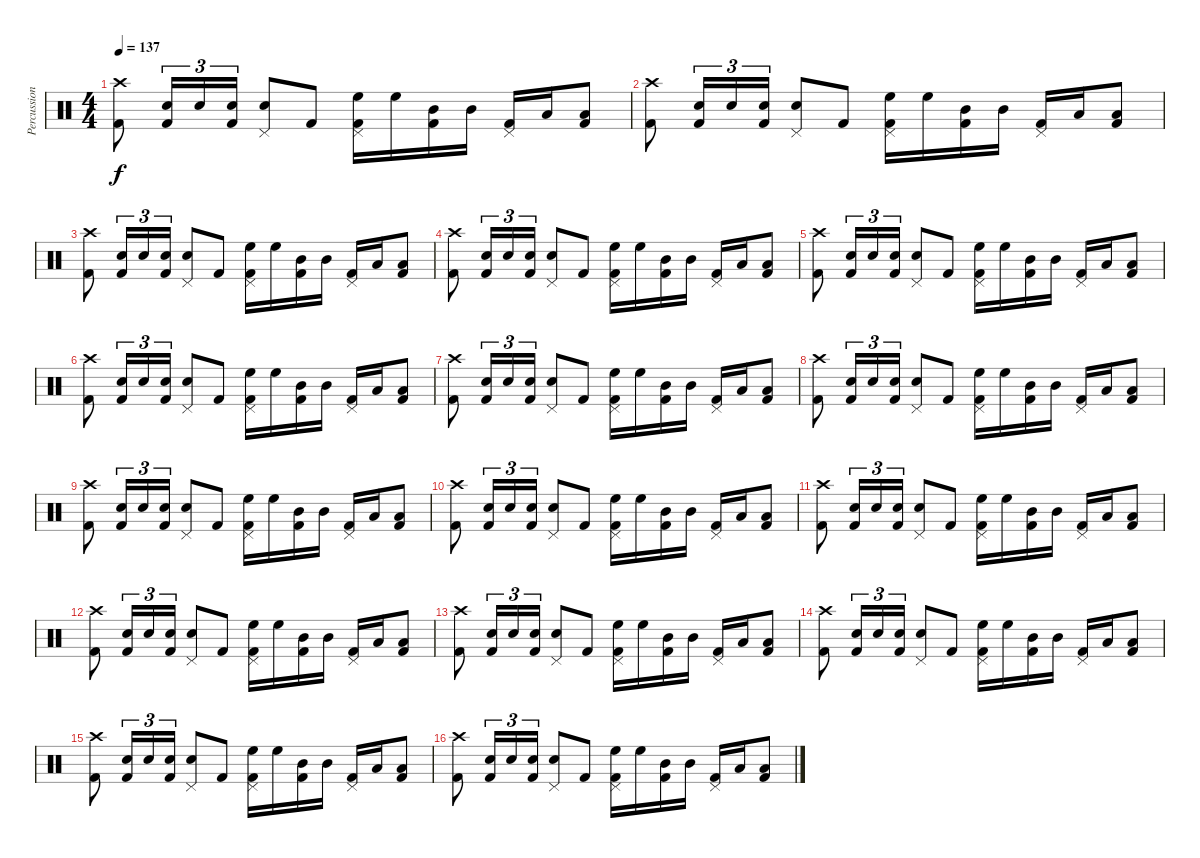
\track ("Percussion" "Percussion") {instrument percussion}
\staff {score}
\articulation defaults
\ts (4 4)
\tempo 137
\clef neutral
\ks c
("Kick (hit) 2" "Crash high (hit)").8{dy f} ("Kick (hit) 2" "Snare (hit) 2").16{tu (3 2)} "Snare (hit) 2".16{tu (3 2)} ("Kick (hit) 2" "Snare (hit) 2").16{tu (3 2)} ("Snare (hit) 2" "Pedal Hi-Hat (hit)").8 "Kick (hit) 2".8 ("Kick (hit) 2" "High Floor Tom (hit)" "Pedal Hi-Hat (hit)").16 "High Floor Tom (hit)".16 ("Kick (hit) 2" "Mid Tom (hit)").16 "Mid Tom (hit)".16 ("Kick (hit) 2" "Pedal Hi-Hat (hit)").16 "Low Tom (hit)".16 ("Kick (hit) 2" "Low Tom (hit)").8 |
("Kick (hit) 2" "Crash high (hit)").8 ("Kick (hit) 2" "Snare (hit) 2").16{tu (3 2)} "Snare (hit) 2".16{tu (3 2)} ("Kick (hit) 2" "Snare (hit) 2").16{tu (3 2)} ("Snare (hit) 2" "Pedal Hi-Hat (hit)").8 "Kick (hit) 2".8 ("Kick (hit) 2" "High Floor Tom (hit)" "Pedal Hi-Hat (hit)").16 "High Floor Tom (hit)".16 ("Kick (hit) 2" "Mid Tom (hit)").16 "Mid Tom (hit)".16 ("Kick (hit) 2" "Pedal Hi-Hat (hit)").16 "Low Tom (hit)".16 ("Kick (hit) 2" "Low Tom (hit)").8 |
("Kick (hit) 2" "Crash high (hit)").8 ("Kick (hit) 2" "Snare (hit) 2").16{tu (3 2)} "Snare (hit) 2".16{tu (3 2)} ("Kick (hit) 2" "Snare (hit) 2").16{tu (3 2)} ("Snare (hit) 2" "Pedal Hi-Hat (hit)").8 "Kick (hit) 2".8 ("Kick (hit) 2" "High Floor Tom (hit)" "Pedal Hi-Hat (hit)").16 "High Floor Tom (hit)".16 ("Kick (hit) 2" "Mid Tom (hit)").16 "Mid Tom (hit)".16 ("Kick (hit) 2" "Pedal Hi-Hat (hit)").16 "Low Tom (hit)".16 ("Kick (hit) 2" "Low Tom (hit)").8 |
("Kick (hit) 2" "Crash high (hit)").8 ("Kick (hit) 2" "Snare (hit) 2").16{tu (3 2)} "Snare (hit) 2".16{tu (3 2)} ("Kick (hit) 2" "Snare (hit) 2").16{tu (3 2)} ("Snare (hit) 2" "Pedal Hi-Hat (hit)").8 "Kick (hit) 2".8 ("Kick (hit) 2" "High Floor Tom (hit)" "Pedal Hi-Hat (hit)").16 "High Floor Tom (hit)".16 ("Kick (hit) 2" "Mid Tom (hit)").16 "Mid Tom (hit)".16 ("Kick (hit) 2" "Pedal Hi-Hat (hit)").16 "Low Tom (hit)".16 ("Kick (hit) 2" "Low Tom (hit)").8 |
("Kick (hit) 2" "Crash high (hit)").8 ("Kick (hit) 2" "Snare (hit) 2").16{tu (3 2)} "Snare (hit) 2".16{tu (3 2)} ("Kick (hit) 2" "Snare (hit) 2").16{tu (3 2)} ("Snare (hit) 2" "Pedal Hi-Hat (hit)").8 "Kick (hit) 2".8 ("Kick (hit) 2" "High Floor Tom (hit)" "Pedal Hi-Hat (hit)").16 "High Floor Tom (hit)".16 ("Kick (hit) 2" "Mid Tom (hit)").16 "Mid Tom (hit)".16 ("Kick (hit) 2" "Pedal Hi-Hat (hit)").16 "Low Tom (hit)".16 ("Kick (hit) 2" "Low Tom (hit)").8 |
("Kick (hit) 2" "Crash high (hit)").8 ("Kick (hit) 2" "Snare (hit) 2").16{tu (3 2)} "Snare (hit) 2".16{tu (3 2)} ("Kick (hit) 2" "Snare (hit) 2").16{tu (3 2)} ("Snare (hit) 2" "Pedal Hi-Hat (hit)").8 "Kick (hit) 2".8 ("Kick (hit) 2" "High Floor Tom (hit)" "Pedal Hi-Hat (hit)").16 "High Floor Tom (hit)".16 ("Kick (hit) 2" "Mid Tom (hit)").16 "Mid Tom (hit)".16 ("Kick (hit) 2" "Pedal Hi-Hat (hit)").16 "Low Tom (hit)".16 ("Kick (hit) 2" "Low Tom (hit)").8 |
("Kick (hit) 2" "Crash high (hit)").8 ("Kick (hit) 2" "Snare (hit) 2").16{tu (3 2)} "Snare (hit) 2".16{tu (3 2)} ("Kick (hit) 2" "Snare (hit) 2").16{tu (3 2)} ("Snare (hit) 2" "Pedal Hi-Hat (hit)").8 "Kick (hit) 2".8 ("Kick (hit) 2" "High Floor Tom (hit)" "Pedal Hi-Hat (hit)").16 "High Floor Tom (hit)".16 ("Kick (hit) 2" "Mid Tom (hit)").16 "Mid Tom (hit)".16 ("Kick (hit) 2" "Pedal Hi-Hat (hit)").16 "Low Tom (hit)".16 ("Kick (hit) 2" "Low Tom (hit)").8 |
("Kick (hit) 2" "Crash high (hit)").8 ("Kick (hit) 2" "Snare (hit) 2").16{tu (3 2)} "Snare (hit) 2".16{tu (3 2)} ("Kick (hit) 2" "Snare (hit) 2").16{tu (3 2)} ("Snare (hit) 2" "Pedal Hi-Hat (hit)").8 "Kick (hit) 2".8 ("Kick (hit) 2" "High Floor Tom (hit)" "Pedal Hi-Hat (hit)").16 "High Floor Tom (hit)".16 ("Kick (hit) 2" "Mid Tom (hit)").16 "Mid Tom (hit)".16 ("Kick (hit) 2" "Pedal Hi-Hat (hit)").16 "Low Tom (hit)".16 ("Kick (hit) 2" "Low Tom (hit)").8 |
("Kick (hit) 2" "Crash high (hit)").8 ("Kick (hit) 2" "Snare (hit) 2").16{tu (3 2)} "Snare (hit) 2".16{tu (3 2)} ("Kick (hit) 2" "Snare (hit) 2").16{tu (3 2)} ("Snare (hit) 2" "Pedal Hi-Hat (hit)").8 "Kick (hit) 2".8 ("Kick (hit) 2" "High Floor Tom (hit)" "Pedal Hi-Hat (hit)").16 "High Floor Tom (hit)".16 ("Kick (hit) 2" "Mid Tom (hit)").16 "Mid Tom (hit)".16 ("Kick (hit) 2" "Pedal Hi-Hat (hit)").16 "Low Tom (hit)".16 ("Kick (hit) 2" "Low Tom (hit)").8 |
("Kick (hit) 2" "Crash high (hit)").8 ("Kick (hit) 2" "Snare (hit) 2").16{tu (3 2)} "Snare (hit) 2".16{tu (3 2)} ("Kick (hit) 2" "Snare (hit) 2").16{tu (3 2)} ("Snare (hit) 2" "Pedal Hi-Hat (hit)").8 "Kick (hit) 2".8 ("Kick (hit) 2" "High Floor Tom (hit)" "Pedal Hi-Hat (hit)").16 "High Floor Tom (hit)".16 ("Kick (hit) 2" "Mid Tom (hit)").16 "Mid Tom (hit)".16 ("Kick (hit) 2" "Pedal Hi-Hat (hit)").16 "Low Tom (hit)".16 ("Kick (hit) 2" "Low Tom (hit)").8 |
("Kick (hit) 2" "Crash high (hit)").8 ("Kick (hit) 2" "Snare (hit) 2").16{tu (3 2)} "Snare (hit) 2".16{tu (3 2)} ("Kick (hit) 2" "Snare (hit) 2").16{tu (3 2)} ("Snare (hit) 2" "Pedal Hi-Hat (hit)").8 "Kick (hit) 2".8 ("Kick (hit) 2" "High Floor Tom (hit)" "Pedal Hi-Hat (hit)").16 "High Floor Tom (hit)".16 ("Kick (hit) 2" "Mid Tom (hit)").16 "Mid Tom (hit)".16 ("Kick (hit) 2" "Pedal Hi-Hat (hit)").16 "Low Tom (hit)".16 ("Kick (hit) 2" "Low Tom (hit)").8 |
("Kick (hit) 2" "Crash high (hit)").8 ("Kick (hit) 2" "Snare (hit) 2").16{tu (3 2)} "Snare (hit) 2".16{tu (3 2)} ("Kick (hit) 2" "Snare (hit) 2").16{tu (3 2)} ("Snare (hit) 2" "Pedal Hi-Hat (hit)").8 "Kick (hit) 2".8 ("Kick (hit) 2" "High Floor Tom (hit)" "Pedal Hi-Hat (hit)").16 "High Floor Tom (hit)".16 ("Kick (hit) 2" "Mid Tom (hit)").16 "Mid Tom (hit)".16 ("Kick (hit) 2" "Pedal Hi-Hat (hit)").16 "Low Tom (hit)".16 ("Kick (hit) 2" "Low Tom (hit)").8 |
("Kick (hit) 2" "Crash high (hit)").8 ("Kick (hit) 2" "Snare (hit) 2").16{tu (3 2)} "Snare (hit) 2".16{tu (3 2)} ("Kick (hit) 2" "Snare (hit) 2").16{tu (3 2)} ("Snare (hit) 2" "Pedal Hi-Hat (hit)").8 "Kick (hit) 2".8 ("Kick (hit) 2" "High Floor Tom (hit)" "Pedal Hi-Hat (hit)").16 "High Floor Tom (hit)".16 ("Kick (hit) 2" "Mid Tom (hit)").16 "Mid Tom (hit)".16 ("Kick (hit) 2" "Pedal Hi-Hat (hit)").16 "Low Tom (hit)".16 ("Kick (hit) 2" "Low Tom (hit)").8 |
("Kick (hit) 2" "Crash high (hit)").8 ("Kick (hit) 2" "Snare (hit) 2").16{tu (3 2)} "Snare (hit) 2".16{tu (3 2)} ("Kick (hit) 2" "Snare (hit) 2").16{tu (3 2)} ("Snare (hit) 2" "Pedal Hi-Hat (hit)").8 "Kick (hit) 2".8 ("Kick (hit) 2" "High Floor Tom (hit)" "Pedal Hi-Hat (hit)").16 "High Floor Tom (hit)".16 ("Kick (hit) 2" "Mid Tom (hit)").16 "Mid Tom (hit)".16 ("Kick (hit) 2" "Pedal Hi-Hat (hit)").16 "Low Tom (hit)".16 ("Kick (hit) 2" "Low Tom (hit)").8 |
("Kick (hit) 2" "Crash high (hit)").8 ("Kick (hit) 2" "Snare (hit) 2").16{tu (3 2)} "Snare (hit) 2".16{tu (3 2)} ("Kick (hit) 2" "Snare (hit) 2").16{tu (3 2)} ("Snare (hit) 2" "Pedal Hi-Hat (hit)").8 "Kick (hit) 2".8 ("Kick (hit) 2" "High Floor Tom (hit)" "Pedal Hi-Hat (hit)").16 "High Floor Tom (hit)".16 ("Kick (hit) 2" "Mid Tom (hit)").16 "Mid Tom (hit)".16 ("Kick (hit) 2" "Pedal Hi-Hat (hit)").16 "Low Tom (hit)".16 ("Kick (hit) 2" "Low Tom (hit)").8 |
("Kick (hit) 2" "Crash high (hit)").8 ("Kick (hit) 2" "Snare (hit) 2").16{tu (3 2)} "Snare (hit) 2".16{tu (3 2)} ("Kick (hit) 2" "Snare (hit) 2").16{tu (3 2)} ("Snare (hit) 2" "Pedal Hi-Hat (hit)").8 "Kick (hit) 2".8 ("Kick (hit) 2" "High Floor Tom (hit)" "Pedal Hi-Hat (hit)").16 "High Floor Tom (hit)".16 ("Kick (hit) 2" "Mid Tom (hit)").16 "Mid Tom (hit)".16 ("Kick (hit) 2" "Pedal Hi-Hat (hit)").16 "Low Tom (hit)".16 ("Kick (hit) 2" "Low Tom (hit)").8
